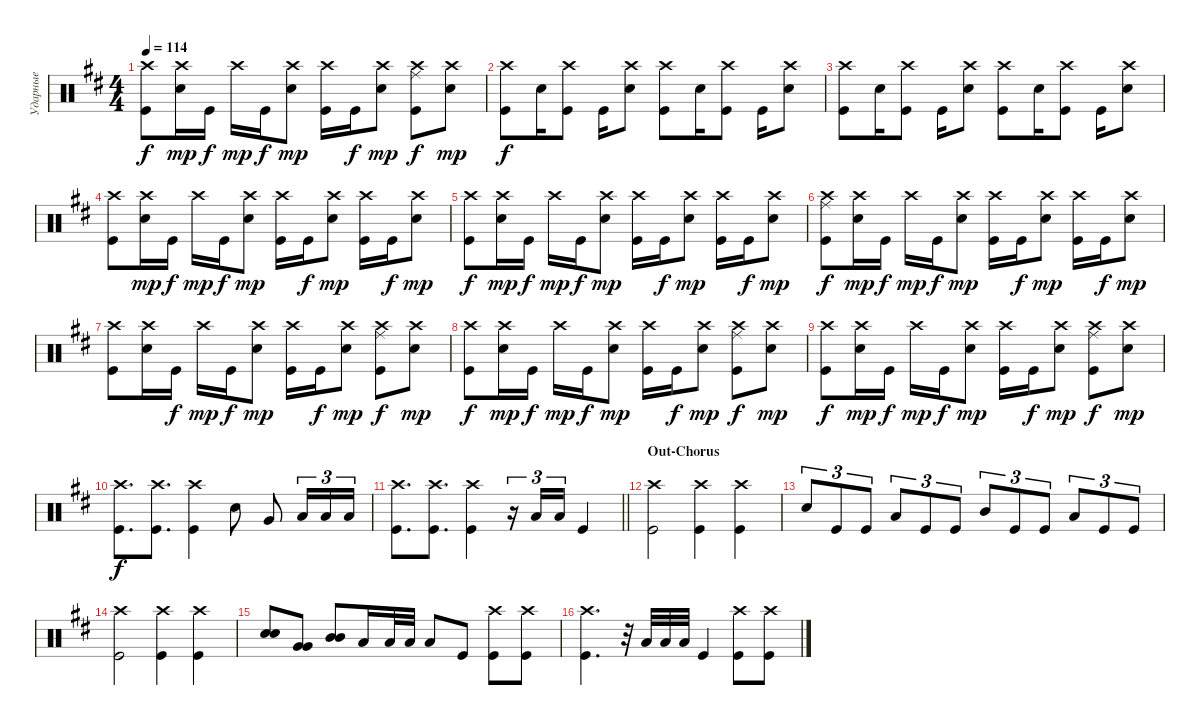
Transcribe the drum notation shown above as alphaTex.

\track ("Ударные" "Ударные") {instrument percussion}
\staff {score}
\articulation defaults
\ts (4 4)
\tempo 114
\clef neutral
\ks bminor
("Crash high (hit)" "Kick (hit)").8{dy f} ("Crash high (hit)" "Snare (hit) 2").16{dy mp} "Kick (hit)".16{dy f} "Crash high (hit)".16{dy mp} "Kick (hit)".16{dy f} ("Crash high (hit)" "Snare (hit) 2").8{dy mp} ("Kick (hit)" "Crash high (hit)").16 "Kick (hit)".16{dy f} ("Crash high (hit)" "Snare (hit) 2").8{dy mp} ("Ride (middle)" "Crash high (hit)" "Kick (hit)").8{dy f} ("Crash high (hit)" "Snare (hit) 2").8{dy mp} |
("Crash high (hit)" "Kick (hit)").8{dy f} "Snare (hit) 2".16 ("Crash high (hit)" "Kick (hit)").8 "Kick (hit)".16 ("Crash high (hit)" "Snare (hit) 2").8 ("Crash high (hit)" "Kick (hit)").8 "Snare (hit) 2".16 ("Crash high (hit)" "Kick (hit)").8 "Kick (hit)".16 ("Crash high (hit)" "Snare (hit) 2").8 |
("Crash high (hit)" "Kick (hit)").8 "Snare (hit) 2".16 ("Crash high (hit)" "Kick (hit)").8 "Kick (hit)".16 ("Crash high (hit)" "Snare (hit) 2").8 ("Crash high (hit)" "Kick (hit)").8 "Snare (hit) 2".16 ("Crash high (hit)" "Kick (hit)").8 "Kick (hit)".16 ("Crash high (hit)" "Snare (hit) 2").8 |
("Crash high (hit)" "Kick (hit)").8 ("Crash high (hit)" "Snare (hit) 2").16{dy mp} "Kick (hit)".16{dy f} "Crash high (hit)".16{dy mp} "Kick (hit)".16{dy f} ("Crash high (hit)" "Snare (hit) 2").8{dy mp} ("Kick (hit)" "Crash high (hit)").16 "Kick (hit)".16{dy f} ("Crash high (hit)" "Snare (hit) 2").8{dy mp} ("Kick (hit)" "Crash high (hit)").16 "Kick (hit)".16{dy f} ("Crash high (hit)" "Snare (hit) 2").8{dy mp} |
("Crash high (hit)" "Kick (hit)").8{dy f} ("Crash high (hit)" "Snare (hit) 2").16{dy mp} "Kick (hit)".16{dy f} "Crash high (hit)".16{dy mp} "Kick (hit)".16{dy f} ("Crash high (hit)" "Snare (hit) 2").8{dy mp} ("Kick (hit)" "Crash high (hit)").16 "Kick (hit)".16{dy f} ("Crash high (hit)" "Snare (hit) 2").8{dy mp} ("Crash high (hit)" "Kick (hit)").16 "Kick (hit)".16{dy f} ("Crash high (hit)" "Snare (hit) 2").8{dy mp} |
("Crash high (hit)" "Ride (middle)" "Kick (hit)").8{dy f} ("Crash high (hit)" "Snare (hit) 2").16{dy mp} "Kick (hit)".16{dy f} "Crash high (hit)".16{dy mp} "Kick (hit)".16{dy f} ("Crash high (hit)" "Snare (hit) 2").8{dy mp} ("Kick (hit)" "Crash high (hit)").16 "Kick (hit)".16{dy f} ("Crash high (hit)" "Snare (hit) 2").8{dy mp} ("Kick (hit)" "Crash high (hit)").16 "Kick (hit)".16{dy f} ("Crash high (hit)" "Snare (hit) 2").8{dy mp} |
("Crash high (hit)" "Kick (hit)").8 ("Crash high (hit)" "Snare (hit) 2").16 "Kick (hit)".16{dy f} "Crash high (hit)".16{dy mp} "Kick (hit)".16{dy f} ("Crash high (hit)" "Snare (hit) 2").8{dy mp} ("Kick (hit)" "Crash high (hit)").16 "Kick (hit)".16{dy f} ("Crash high (hit)" "Snare (hit) 2").8{dy mp} ("Ride (middle)" "Crash high (hit)" "Kick (hit)").8{dy f} ("Crash high (hit)" "Snare (hit) 2").8{dy mp} |
("Crash high (hit)" "Kick (hit)").8{dy f} ("Crash high (hit)" "Snare (hit) 2").16{dy mp} "Kick (hit)".16{dy f} "Crash high (hit)".16{dy mp} "Kick (hit)".16{dy f} ("Crash high (hit)" "Snare (hit) 2").8{dy mp} ("Kick (hit)" "Crash high (hit)").16 "Kick (hit)".16{dy f} ("Crash high (hit)" "Snare (hit) 2").8{dy mp} ("Ride (middle)" "Crash high (hit)" "Kick (hit)").8{dy f} ("Crash high (hit)" "Snare (hit) 2").8{dy mp} |
("Crash high (hit)" "Kick (hit)").8{dy f} ("Crash high (hit)" "Snare (hit) 2").16{dy mp} "Kick (hit)".16{dy f} "Crash high (hit)".16{dy mp} "Kick (hit)".16{dy f} ("Crash high (hit)" "Snare (hit) 2").8{dy mp} ("Kick (hit)" "Crash high (hit)").16 "Kick (hit)".16{dy f} ("Crash high (hit)" "Snare (hit) 2").8{dy mp} ("Ride (middle)" "Crash high (hit)" "Kick (hit)").8{dy f} ("Crash high (hit)" "Snare (hit) 2").8{dy mp} |
("Crash high (hit)" "Kick (hit)").8{d dy f} ("Crash high (hit)" "Kick (hit)").8{d} ("Crash high (hit)" "Kick (hit)").4 "Snare (hit) 2".8 "Very Low Tom (hit)".8 "Low Floor Tom (hit)".16{tu (3 2)} "Low Floor Tom (hit)".16{tu (3 2)} "Low Floor Tom (hit)".16{tu (3 2)} |
\barLineRight lightlight
("Crash high (hit)" "Kick (hit)").8{d} ("Crash high (hit)" "Kick (hit)").8{d} ("Crash high (hit)" "Kick (hit)").4 r.16{tu (3 2)} "Low Floor Tom (hit)".16{tu (3 2)} "Low Floor Tom (hit)".16{tu (3 2)} "Kick (hit)".4 |
\section ("" "Out-Chorus")
("Crash high (hit)" "Kick (hit)").2 ("Crash high (hit)" "Kick (hit)").4 ("Crash high (hit)" "Kick (hit)").4 |
"Snare (hit) 2".8{tu (3 2)} "Kick (hit)".8{tu (3 2)} "Kick (hit)".8{tu (3 2)} "Low Tom (hit)".8{tu (3 2)} "Kick (hit)".8{tu (3 2)} "Kick (hit)".8{tu (3 2)} "Mid Tom (hit)".8{tu (3 2)} "Kick (hit)".8{tu (3 2)} "Kick (hit)".8{tu (3 2)} "Low Tom (hit)".8{tu (3 2)} "Kick (hit)".8{tu (3 2)} "Kick (hit)".8{tu (3 2)} |
("Crash high (hit)" "Kick (hit)").2 ("Crash high (hit)" "Kick (hit)").4 ("Crash high (hit)" "Kick (hit)").4 |
("Snare (hit) 2" "Snare (hit) 2").8{bd 480} ("Very Low Tom (hit)" "Very Low Tom (hit)").8{bd 480} ("Mid Tom (hit)" "Mid Tom (hit)").8{bd 480} "Low Tom (hit)".16 "Low Tom (hit)".32 "Low Tom (hit)".32 "Low Tom (hit)".8 "Kick (hit)".8 ("Crash high (hit)" "Kick (hit)").8 ("Crash high (hit)" "Kick (hit)").8 |
("Crash high (hit)" "Kick (hit)").4{d} r.32 "Low Floor Tom (hit)".32 "Low Floor Tom (hit)".32 "Low Floor Tom (hit)".32 "Kick (hit)".4 ("Crash high (hit)" "Kick (hit)").8 ("Crash high (hit)" "Kick (hit)").8
